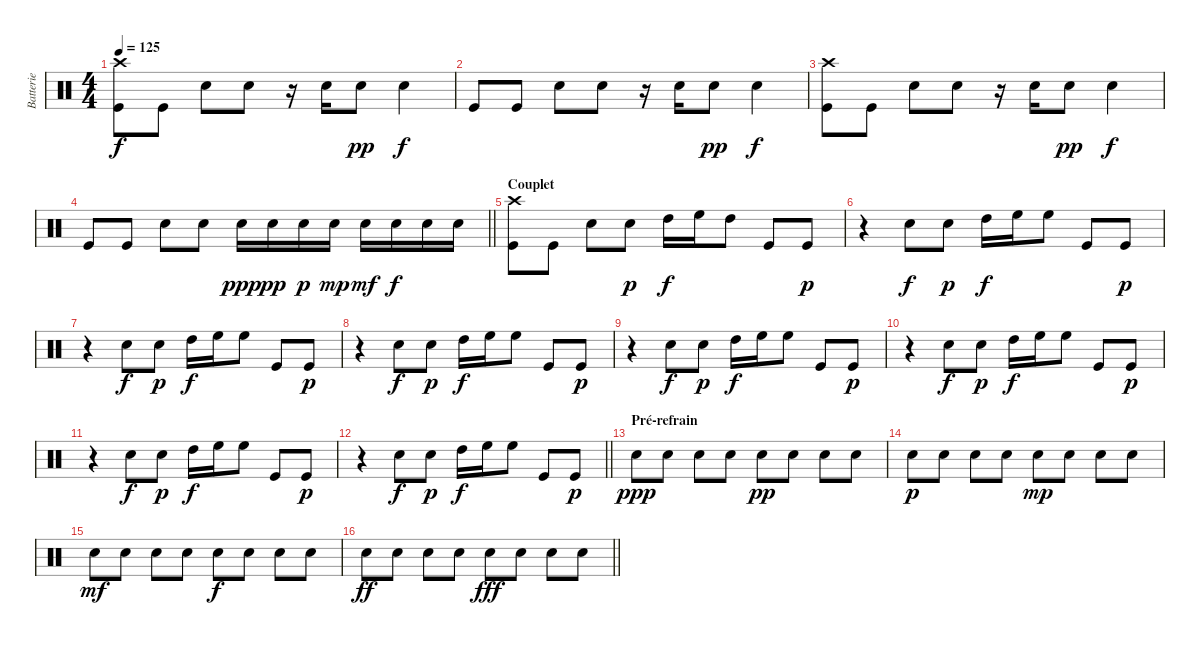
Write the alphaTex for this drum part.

\track ("Batterie" "Batterie") {instrument percussion}
\staff {score}
\articulation defaults
\ts (4 4)
\tempo 125
\clef neutral
\ks c
("Kick (hit)" "Crash high (hit)").8{dy f} "Kick (hit)".8 "Snare (hit) 2".8 "Snare (hit) 2".8 r.16 "Snare (hit) 2".16 "Snare (hit) 2".8{dy pp} "Snare (hit) 2".4{dy f} |
"Kick (hit)".8 "Kick (hit)".8 "Snare (hit) 2".8 "Snare (hit) 2".8 r.16 "Snare (hit) 2".16 "Snare (hit) 2".8{dy pp} "Snare (hit) 2".4{dy f} |
("Kick (hit)" "Crash high (hit)").8 "Kick (hit)".8 "Snare (hit) 2".8 "Snare (hit) 2".8 r.16 "Snare (hit) 2".16 "Snare (hit) 2".8{dy pp} "Snare (hit) 2".4{dy f} |
\barLineRight lightlight "Kick (hit)".8 "Kick (hit)".8 "Snare (hit) 2".8 "Snare (hit) 2".8 "Snare (hit) 2".16{dy ppp} "Snare (hit) 2".16{dy pp} "Snare (hit) 2".16{dy p} "Snare (hit) 2".16{dy mp} "Snare (hit) 2".16{dy mf} "Snare (hit) 2".16{dy f} "Snare (hit) 2".16 "Snare (hit) 2".16
|
\section ("" "Couplet")
("Kick (hit)" "Crash high (hit)").8 "Kick (hit)".8 "Snare (hit) 2".8 "Snare (hit) 2".8{dy p} "High Tom (hit)".16{dy f} "High Floor Tom (hit)".16 "High Tom (hit)".8 "Kick (hit)".8 "Kick (hit)".8{dy p} |
r.4 "Snare (hit) 2".8{dy f} "Snare (hit) 2".8{dy p} "High Tom (hit)".16{dy f} "High Floor Tom (hit)".16 "High Floor Tom (hit)".8 "Kick (hit)".8 "Kick (hit)".8{dy p} |
r.4 "Snare (hit) 2".8{dy f} "Snare (hit) 2".8{dy p} "High Tom (hit)".16{dy f} "High Floor Tom (hit)".16 "High Floor Tom (hit)".8 "Kick (hit)".8 "Kick (hit)".8{dy p} |
r.4 "Snare (hit) 2".8{dy f} "Snare (hit) 2".8{dy p} "High Tom (hit)".16{dy f} "High Floor Tom (hit)".16 "High Floor Tom (hit)".8 "Kick (hit)".8 "Kick (hit)".8{dy p} |
r.4 "Snare (hit) 2".8{dy f} "Snare (hit) 2".8{dy p} "High Tom (hit)".16{dy f} "High Floor Tom (hit)".16 "High Floor Tom (hit)".8 "Kick (hit)".8 "Kick (hit)".8{dy p} |
r.4 "Snare (hit) 2".8{dy f} "Snare (hit) 2".8{dy p} "High Tom (hit)".16{dy f} "High Floor Tom (hit)".16 "High Floor Tom (hit)".8 "Kick (hit)".8 "Kick (hit)".8{dy p} |
r.4 "Snare (hit) 2".8{dy f} "Snare (hit) 2".8{dy p} "High Tom (hit)".16{dy f} "High Floor Tom (hit)".16 "High Floor Tom (hit)".8 "Kick (hit)".8 "Kick (hit)".8{dy p} |
\barLineRight lightlight
r.4 "Snare (hit) 2".8{dy f} "Snare (hit) 2".8{dy p} "High Tom (hit)".16{dy f} "High Floor Tom (hit)".16 "High Floor Tom (hit)".8 "Kick (hit)".8 "Kick (hit)".8{dy p} |
\section ("" "Pré-refrain")
"Snare (hit) 2".8{dy ppp} "Snare (hit) 2".8 "Snare (hit) 2".8 "Snare (hit) 2".8 "Snare (hit) 2".8{dy pp} "Snare (hit) 2".8 "Snare (hit) 2".8 "Snare (hit) 2".8 |
"Snare (hit) 2".8{dy p} "Snare (hit) 2".8 "Snare (hit) 2".8 "Snare (hit) 2".8 "Snare (hit) 2".8{dy mp} "Snare (hit) 2".8 "Snare (hit) 2".8 "Snare (hit) 2".8 |
"Snare (hit) 2".8{dy mf} "Snare (hit) 2".8 "Snare (hit) 2".8 "Snare (hit) 2".8 "Snare (hit) 2".8{dy f} "Snare (hit) 2".8 "Snare (hit) 2".8 "Snare (hit) 2".8 |
\barLineRight lightlight "Snare (hit) 2".8{dy ff} "Snare (hit) 2".8 "Snare (hit) 2".8 "Snare (hit) 2".8 "Snare (hit) 2".8{dy fff} "Snare (hit) 2".8 "Snare (hit) 2".8 "Snare (hit) 2".8
